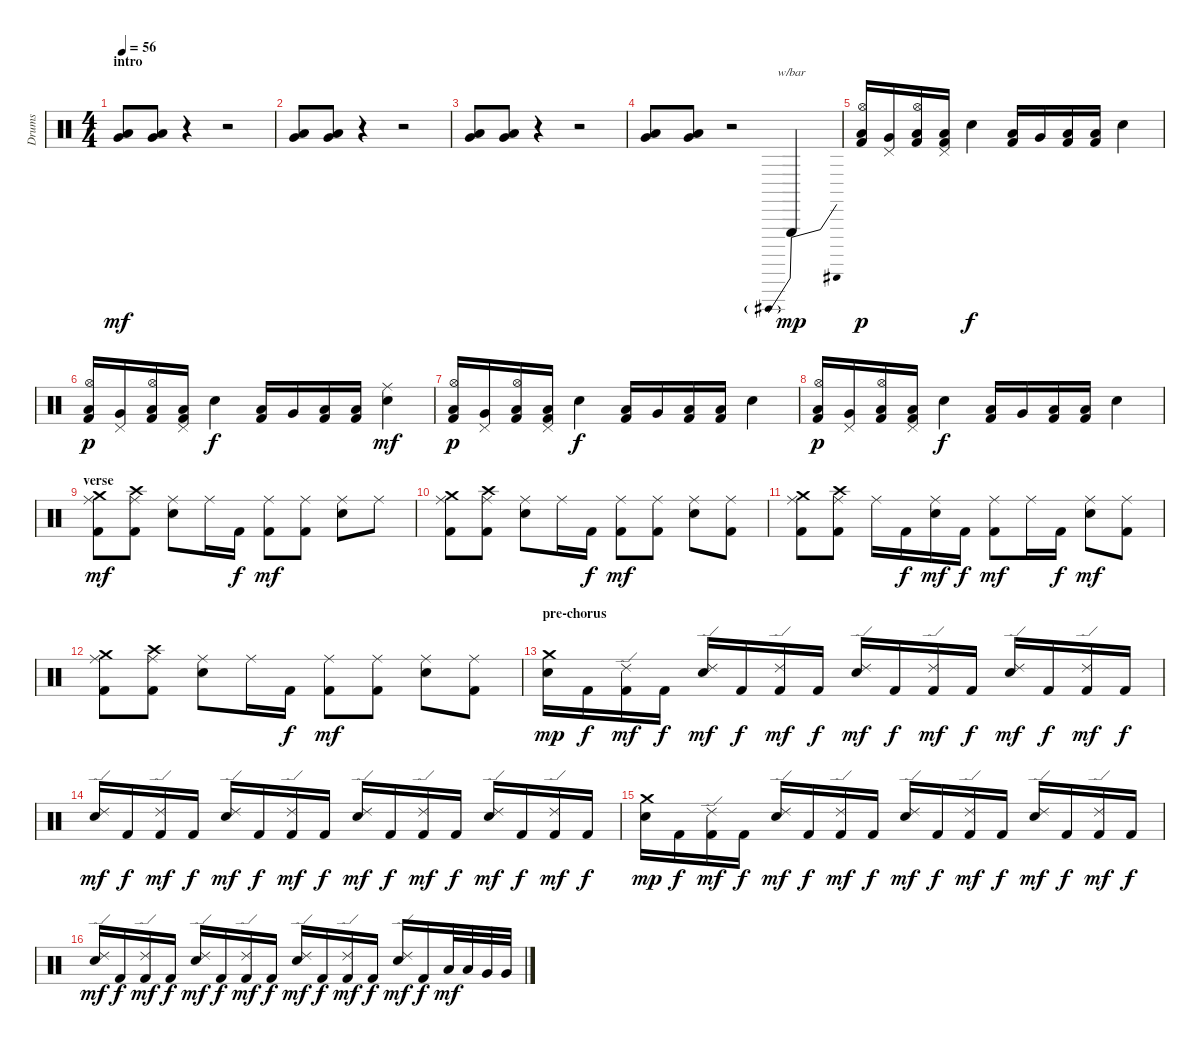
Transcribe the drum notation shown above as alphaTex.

\track ("Drums" "Drums") {instrument percussion}
\staff {score}
\articulation defaults
\ts (4 4)
\section ("" "intro")
\tempo 56
\clef neutral
\ks c
("Low Tom (hit)" "Very Low Tom (hit)").8{dy mf} ("Low Floor Tom (hit)" "Very Low Tom (hit)").8 r.4 r.2 |
("Low Tom (hit)" "Very Low Tom (hit)").8 ("Low Floor Tom (hit)" "Very Low Tom (hit)").8 r.4 r.2 |
("Low Tom (hit)" "Very Low Tom (hit)").8 ("Low Floor Tom (hit)" "Very Low Tom (hit)").8 r.4 r.2 |
("Low Tom (hit)" "Very Low Tom (hit)").8 ("Low Floor Tom (hit)" "Very Low Tom (hit)").8 r.2 "Triangle (hit)".4{tbe (predivedive default 0 -24 60 24) dy mp} |
("Hi-Hat (open)" "Low Floor Tom (hit)" "Kick (hit) 2").16{dy p} ("Pedal Hi-Hat (hit)" "Very Low Tom (hit)").16 ("Hi-Hat (open)" "Low Floor Tom (hit)" "Kick (hit) 2").16 ("Pedal Hi-Hat (hit)" "Low Floor Tom (hit)" "Kick (hit) 2").16 "Snare (hit) 2".4{dy f} ("Low Floor Tom (hit)" "Kick (hit) 2").16 "Very Low Tom (hit)".16 ("Low Floor Tom (hit)" "Kick (hit) 2").16 ("Low Floor Tom (hit)" "Kick (hit) 2").16 "Snare (hit) 2".4 |
("Hi-Hat (open)" "Low Floor Tom (hit)" "Kick (hit) 2").16{dy p} ("Pedal Hi-Hat (hit)" "Very Low Tom (hit)").16 ("Hi-Hat (open)" "Low Floor Tom (hit)" "Kick (hit) 2").16 ("Pedal Hi-Hat (hit)" "Low Floor Tom (hit)" "Kick (hit) 2").16 "Snare (hit) 2".4{dy f} ("Low Floor Tom (hit)" "Kick (hit) 2").16 "Very Low Tom (hit)".16 ("Low Floor Tom (hit)" "Kick (hit) 2").16 ("Low Floor Tom (hit)" "Kick (hit) 2").16 ("Ride (middle)" "Snare (hit) 2").4{dy mf} |
("Hi-Hat (open)" "Low Floor Tom (hit)" "Kick (hit) 2").16{dy p} ("Pedal Hi-Hat (hit)" "Very Low Tom (hit)").16 ("Hi-Hat (open)" "Low Floor Tom (hit)" "Kick (hit) 2").16 ("Pedal Hi-Hat (hit)" "Low Floor Tom (hit)" "Kick (hit) 2").16 "Snare (hit) 2".4{dy f} ("Low Floor Tom (hit)" "Kick (hit) 2").16 "Very Low Tom (hit)".16 ("Low Floor Tom (hit)" "Kick (hit) 2").16 ("Low Floor Tom (hit)" "Kick (hit) 2").16 "Snare (hit) 2".4 |
("Hi-Hat (open)" "Low Floor Tom (hit)" "Kick (hit) 2").16{dy p} ("Pedal Hi-Hat (hit)" "Very Low Tom (hit)").16 ("Hi-Hat (open)" "Low Floor Tom (hit)" "Kick (hit) 2").16 ("Pedal Hi-Hat (hit)" "Low Floor Tom (hit)" "Kick (hit) 2").16 "Snare (hit) 2".4{dy f} ("Low Floor Tom (hit)" "Kick (hit) 2").16 "Very Low Tom (hit)".16 ("Low Floor Tom (hit)" "Kick (hit) 2").16 ("Low Floor Tom (hit)" "Kick (hit) 2").16 "Snare (hit) 2".4 |
\section ("" "verse")
("Crash medium (hit)" "Ride (middle)" "Kick (hit) 2").8{dy mf} ("Crash high (hit)" "Ride (middle)" "Kick (hit) 2").8 ("Ride (middle)" "Snare (hit) 2").8 "Ride (middle)".16 "Kick (hit) 2".16{dy f} ("Ride (middle)" "Kick (hit) 2").8{dy mf} ("Ride (middle)" "Kick (hit) 2").8 ("Ride (middle)" "Snare (hit) 2").8 "Ride (middle)".8 |
("Crash medium (hit)" "Ride (middle)" "Kick (hit) 2").8 ("Crash high (hit)" "Ride (middle)" "Kick (hit) 2").8 ("Ride (middle)" "Snare (hit) 2").8 "Ride (middle)".16 "Kick (hit) 2".16{dy f} ("Ride (middle)" "Kick (hit) 2").8{dy mf} ("Ride (middle)" "Kick (hit) 2").8 ("Ride (middle)" "Snare (hit) 2").8 ("Ride (middle)" "Kick (hit) 2").8 |
("Crash medium (hit)" "Ride (middle)" "Kick (hit) 2").8 ("Crash high (hit)" "Ride (middle)" "Kick (hit) 2").8 "Ride (middle)".16 "Kick (hit) 2".16{dy f} ("Ride (middle)" "Snare (hit) 2").16{dy mf} "Kick (hit) 2".16{dy f} ("Ride (middle)" "Kick (hit) 2").8{dy mf} "Ride (middle)".16 "Kick (hit) 2".16{dy f} ("Ride (middle)" "Snare (hit) 2").8{dy mf} ("Ride (middle)" "Kick (hit) 2").8 |
("Crash medium (hit)" "Ride (middle)" "Kick (hit) 2").8 ("Crash high (hit)" "Ride (middle)" "Kick (hit) 2").8 ("Ride (middle)" "Snare (hit) 2").8 "Ride (middle)".16 "Kick (hit) 2".16{dy f} ("Ride (middle)" "Kick (hit) 2").8{dy mf} ("Ride (middle)" "Kick (hit) 2").8 ("Ride (middle)" "Snare (hit) 2").8 ("Ride (middle)" "Kick (hit) 2").8 |
\section ("" "pre-chorus")
("Crash medium (hit)" "Snare (hit) 2").16{dy mp} "Kick (hit) 2".16{dy f} ("Ride (edge) 2" "Kick (hit) 2").16{dy mf} "Kick (hit) 2".16{dy f} ("Ride (edge) 2" "Snare (hit) 2").16{dy mf} "Kick (hit) 2".16{dy f} ("Ride (edge) 2" "Kick (hit) 2").16{dy mf} "Kick (hit) 2".16{dy f} ("Ride (edge) 2" "Snare (hit) 2").16{dy mf} "Kick (hit) 2".16{dy f} ("Ride (edge) 2" "Kick (hit) 2").16{dy mf} "Kick (hit) 2".16{dy f} ("Ride (edge) 2" "Snare (hit) 2").16{dy mf} "Kick (hit) 2".16{dy f} ("Ride (edge) 2" "Kick (hit) 2").16{dy mf} "Kick (hit) 2".16{dy f} |
("Ride (edge) 2" "Snare (hit) 2").16{dy mf} "Kick (hit) 2".16{dy f} ("Ride (edge) 2" "Kick (hit) 2").16{dy mf} "Kick (hit) 2".16{dy f} ("Ride (edge) 2" "Snare (hit) 2").16{dy mf} "Kick (hit) 2".16{dy f} ("Ride (edge) 2" "Kick (hit) 2").16{dy mf} "Kick (hit) 2".16{dy f} ("Ride (edge) 2" "Snare (hit) 2").16{dy mf} "Kick (hit) 2".16{dy f} ("Ride (edge) 2" "Kick (hit) 2").16{dy mf} "Kick (hit) 2".16{dy f} ("Ride (edge) 2" "Snare (hit) 2").16{dy mf} "Kick (hit) 2".16{dy f} ("Ride (edge) 2" "Kick (hit) 2").16{dy mf} "Kick (hit) 2".16{dy f} |
("Crash medium (hit)" "Snare (hit) 2").16{dy mp} "Kick (hit) 2".16{dy f} ("Ride (edge) 2" "Kick (hit) 2").16{dy mf} "Kick (hit) 2".16{dy f} ("Ride (edge) 2" "Snare (hit) 2").16{dy mf} "Kick (hit) 2".16{dy f} ("Ride (edge) 2" "Kick (hit) 2").16{dy mf} "Kick (hit) 2".16{dy f} ("Ride (edge) 2" "Snare (hit) 2").16{dy mf} "Kick (hit) 2".16{dy f} ("Ride (edge) 2" "Kick (hit) 2").16{dy mf} "Kick (hit) 2".16{dy f} ("Ride (edge) 2" "Snare (hit) 2").16{dy mf} "Kick (hit) 2".16{dy f} ("Ride (edge) 2" "Kick (hit) 2").16{dy mf} "Kick (hit) 2".16{dy f} |
("Ride (edge) 2" "Snare (hit) 2").16{dy mf} "Kick (hit) 2".16{dy f} ("Ride (edge) 2" "Kick (hit) 2").16{dy mf} "Kick (hit) 2".16{dy f} ("Ride (edge) 2" "Snare (hit) 2").16{dy mf} "Kick (hit) 2".16{dy f} ("Ride (edge) 2" "Kick (hit) 2").16{dy mf} "Kick (hit) 2".16{dy f} ("Ride (edge) 2" "Snare (hit) 2").16{dy mf} "Kick (hit) 2".16{dy f} ("Ride (edge) 2" "Kick (hit) 2").16{dy mf} "Kick (hit) 2".16{dy f} ("Ride (edge) 2" "Snare (hit) 2").16{dy mf} "Kick (hit) 2".16{dy f} "Low Tom (hit)".32{dy mf} "Low Tom (hit)".32 "Very Low Tom (hit)".32 "Very Low Tom (hit)".32
